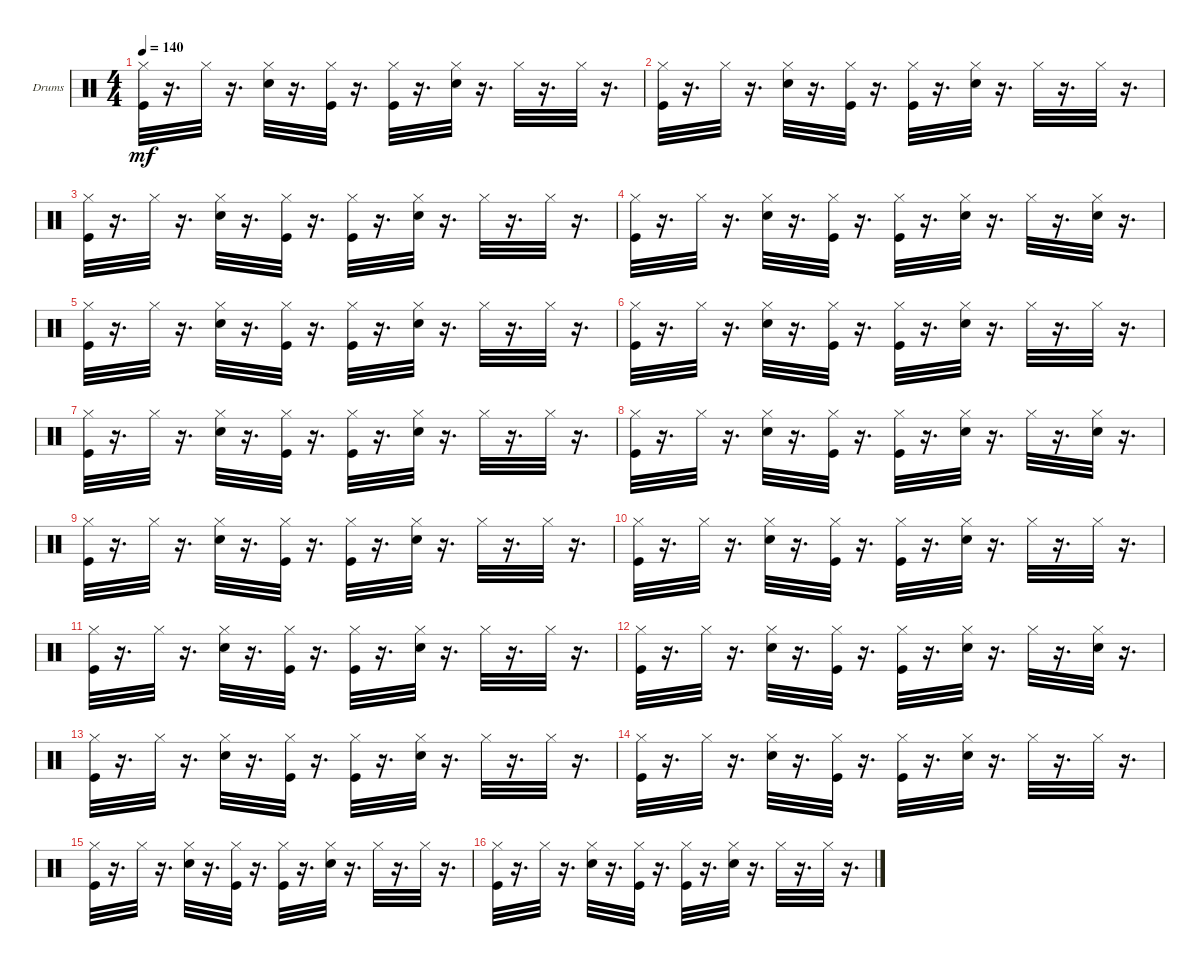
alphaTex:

\bracketExtendMode groupsimilarinstruments
\firstSystemTrackNameOrientation horizontal
\otherSystemsTrackNameOrientation horizontal
\track ("" "Drums") {instrument percussion}
\staff {score}
\articulation defaults
\ts (4 4)
\tempo 140
\clef neutral
\ks c
("Hi-Hat (closed)" "Kick (hit)").32{dy mf} r.16{d} "Hi-Hat (closed)".32 r.16{d} ("Snare (hit) 2" "Hi-Hat (closed)").32 r.16{d} ("Kick (hit)" "Hi-Hat (closed)").32 r.16{d} ("Kick (hit)" "Hi-Hat (closed)").32 r.16{d} ("Snare (hit) 2" "Hi-Hat (closed)").32 r.16{d} "Hi-Hat (closed)".32 r.16{d} "Hi-Hat (closed)".32 r.16{d} |
("Hi-Hat (closed)" "Kick (hit)").32 r.16{d} "Hi-Hat (closed)".32 r.16{d} ("Snare (hit) 2" "Hi-Hat (closed)").32 r.16{d} ("Kick (hit)" "Hi-Hat (closed)").32 r.16{d} ("Kick (hit)" "Hi-Hat (closed)").32 r.16{d} ("Snare (hit) 2" "Hi-Hat (closed)").32 r.16{d} "Hi-Hat (closed)".32 r.16{d} "Hi-Hat (closed)".32 r.16{d} |
("Hi-Hat (closed)" "Kick (hit)").32 r.16{d} "Hi-Hat (closed)".32 r.16{d} ("Snare (hit) 2" "Hi-Hat (closed)").32 r.16{d} ("Kick (hit)" "Hi-Hat (closed)").32 r.16{d} ("Kick (hit)" "Hi-Hat (closed)").32 r.16{d} ("Snare (hit) 2" "Hi-Hat (closed)").32 r.16{d} "Hi-Hat (closed)".32 r.16{d} "Hi-Hat (closed)".32 r.16{d} |
("Hi-Hat (closed)" "Kick (hit)").32 r.16{d} "Hi-Hat (closed)".32 r.16{d} ("Snare (hit) 2" "Hi-Hat (closed)").32 r.16{d} ("Kick (hit)" "Hi-Hat (closed)").32 r.16{d} ("Kick (hit)" "Hi-Hat (closed)").32 r.16{d} ("Snare (hit) 2" "Hi-Hat (closed)").32 r.16{d} "Hi-Hat (closed)".32 r.16{d} ("Snare (hit) 2" "Hi-Hat (closed)").32 r.16{d} |
("Hi-Hat (closed)" "Kick (hit)").32 r.16{d} "Hi-Hat (closed)".32 r.16{d} ("Snare (hit) 2" "Hi-Hat (closed)").32 r.16{d} ("Kick (hit)" "Hi-Hat (closed)").32 r.16{d} ("Kick (hit)" "Hi-Hat (closed)").32 r.16{d} ("Snare (hit) 2" "Hi-Hat (closed)").32 r.16{d} "Hi-Hat (closed)".32 r.16{d} "Hi-Hat (closed)".32 r.16{d} |
("Hi-Hat (closed)" "Kick (hit)").32 r.16{d} "Hi-Hat (closed)".32 r.16{d} ("Snare (hit) 2" "Hi-Hat (closed)").32 r.16{d} ("Kick (hit)" "Hi-Hat (closed)").32 r.16{d} ("Kick (hit)" "Hi-Hat (closed)").32 r.16{d} ("Snare (hit) 2" "Hi-Hat (closed)").32 r.16{d} "Hi-Hat (closed)".32 r.16{d} "Hi-Hat (closed)".32 r.16{d} |
("Hi-Hat (closed)" "Kick (hit)").32 r.16{d} "Hi-Hat (closed)".32 r.16{d} ("Snare (hit) 2" "Hi-Hat (closed)").32 r.16{d} ("Kick (hit)" "Hi-Hat (closed)").32 r.16{d} ("Kick (hit)" "Hi-Hat (closed)").32 r.16{d} ("Snare (hit) 2" "Hi-Hat (closed)").32 r.16{d} "Hi-Hat (closed)".32 r.16{d} "Hi-Hat (closed)".32 r.16{d} |
("Hi-Hat (closed)" "Kick (hit)").32 r.16{d} "Hi-Hat (closed)".32 r.16{d} ("Snare (hit) 2" "Hi-Hat (closed)").32 r.16{d} ("Kick (hit)" "Hi-Hat (closed)").32 r.16{d} ("Kick (hit)" "Hi-Hat (closed)").32 r.16{d} ("Snare (hit) 2" "Hi-Hat (closed)").32 r.16{d} "Hi-Hat (closed)".32 r.16{d} ("Snare (hit) 2" "Hi-Hat (closed)").32 r.16{d} |
("Hi-Hat (closed)" "Kick (hit)").32 r.16{d} "Hi-Hat (closed)".32 r.16{d} ("Snare (hit) 2" "Hi-Hat (closed)").32 r.16{d} ("Kick (hit)" "Hi-Hat (closed)").32 r.16{d} ("Kick (hit)" "Hi-Hat (closed)").32 r.16{d} ("Snare (hit) 2" "Hi-Hat (closed)").32 r.16{d} "Hi-Hat (closed)".32 r.16{d} "Hi-Hat (closed)".32 r.16{d} |
("Hi-Hat (closed)" "Kick (hit)").32 r.16{d} "Hi-Hat (closed)".32 r.16{d} ("Snare (hit) 2" "Hi-Hat (closed)").32 r.16{d} ("Kick (hit)" "Hi-Hat (closed)").32 r.16{d} ("Kick (hit)" "Hi-Hat (closed)").32 r.16{d} ("Snare (hit) 2" "Hi-Hat (closed)").32 r.16{d} "Hi-Hat (closed)".32 r.16{d} "Hi-Hat (closed)".32 r.16{d} |
("Hi-Hat (closed)" "Kick (hit)").32 r.16{d} "Hi-Hat (closed)".32 r.16{d} ("Snare (hit) 2" "Hi-Hat (closed)").32 r.16{d} ("Kick (hit)" "Hi-Hat (closed)").32 r.16{d} ("Kick (hit)" "Hi-Hat (closed)").32 r.16{d} ("Snare (hit) 2" "Hi-Hat (closed)").32 r.16{d} "Hi-Hat (closed)".32 r.16{d} "Hi-Hat (closed)".32 r.16{d} |
("Hi-Hat (closed)" "Kick (hit)").32 r.16{d} "Hi-Hat (closed)".32 r.16{d} ("Snare (hit) 2" "Hi-Hat (closed)").32 r.16{d} ("Kick (hit)" "Hi-Hat (closed)").32 r.16{d} ("Kick (hit)" "Hi-Hat (closed)").32 r.16{d} ("Snare (hit) 2" "Hi-Hat (closed)").32 r.16{d} "Hi-Hat (closed)".32 r.16{d} ("Snare (hit) 2" "Hi-Hat (closed)").32 r.16{d} |
("Hi-Hat (closed)" "Kick (hit)").32 r.16{d} "Hi-Hat (closed)".32 r.16{d} ("Snare (hit) 2" "Hi-Hat (closed)").32 r.16{d} ("Kick (hit)" "Hi-Hat (closed)").32 r.16{d} ("Kick (hit)" "Hi-Hat (closed)").32 r.16{d} ("Snare (hit) 2" "Hi-Hat (closed)").32 r.16{d} "Hi-Hat (closed)".32 r.16{d} "Hi-Hat (closed)".32 r.16{d} |
("Hi-Hat (closed)" "Kick (hit)").32 r.16{d} "Hi-Hat (closed)".32 r.16{d} ("Snare (hit) 2" "Hi-Hat (closed)").32 r.16{d} ("Kick (hit)" "Hi-Hat (closed)").32 r.16{d} ("Kick (hit)" "Hi-Hat (closed)").32 r.16{d} ("Snare (hit) 2" "Hi-Hat (closed)").32 r.16{d} "Hi-Hat (closed)".32 r.16{d} "Hi-Hat (closed)".32 r.16{d} |
("Hi-Hat (closed)" "Kick (hit)").32 r.16{d} "Hi-Hat (closed)".32 r.16{d} ("Snare (hit) 2" "Hi-Hat (closed)").32 r.16{d} ("Kick (hit)" "Hi-Hat (closed)").32 r.16{d} ("Kick (hit)" "Hi-Hat (closed)").32 r.16{d} ("Snare (hit) 2" "Hi-Hat (closed)").32 r.16{d} "Hi-Hat (closed)".32 r.16{d} "Hi-Hat (closed)".32 r.16{d} |
("Hi-Hat (closed)" "Kick (hit)").32 r.16{d} "Hi-Hat (closed)".32 r.16{d} ("Snare (hit) 2" "Hi-Hat (closed)").32 r.16{d} ("Kick (hit)" "Hi-Hat (closed)").32 r.16{d} ("Kick (hit)" "Hi-Hat (closed)").32 r.16{d} ("Snare (hit) 2" "Hi-Hat (closed)").32 r.16{d} "Hi-Hat (closed)".32 r.16{d} "Hi-Hat (closed)".32 r.16{d}
